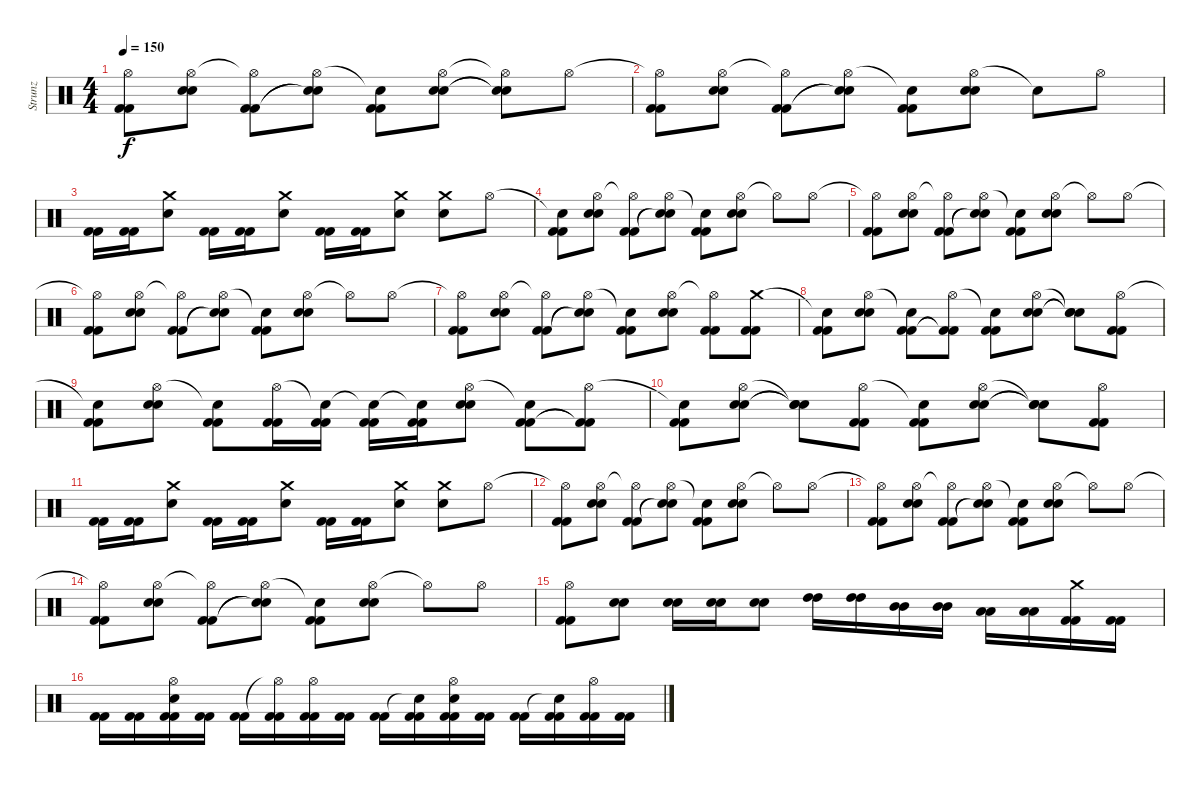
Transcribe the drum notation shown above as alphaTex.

\track ("Strunz" "Strunz") {instrument percussion}
\staff {score}
\articulation defaults
\ts (4 4)
\tempo 150
\clef neutral
\ks c
("Hi-Hat (open)"{t} "Kick (hit) 2" "Kick (hit) 2").8{dy f} ("Hi-Hat (open)" "Snare (hit) 2" "Snare (hit) 2").8 ("Hi-Hat (open)"{t} "Kick (hit) 2" "Kick (hit) 2").8 ("Hi-Hat (open)" "Snare (hit)"{t} "Snare (hit)"{t}).8 ("Snare (hit)"{t} "Kick (hit) 2" "Kick (hit) 2").8 ("Hi-Hat (open)" "Snare (hit) 2" "Snare (hit) 2").8 ("Hi-Hat (open)"{t} "Snare (hit)"{t} "Snare (hit)"{t}).8 "Hi-Hat (open)".8 |
("Hi-Hat (open)"{t} "Kick (hit) 2" "Kick (hit) 2").8 ("Hi-Hat (open)" "Snare (hit) 2" "Snare (hit) 2").8 ("Hi-Hat (open)"{t} "Kick (hit) 2" "Kick (hit) 2").8 ("Hi-Hat (open)" "Snare (hit)"{t} "Snare (hit)"{t}).8 ("Snare (hit)"{t} "Kick (hit) 2" "Kick (hit) 2").8 ("Hi-Hat (open)" "Snare (hit) 2" "Snare (hit) 2").8 "Snare (hit)"{t}.8 "Hi-Hat (open)".8 |
("Kick (hit) 2" "Kick (hit) 2").16 ("Kick (hit) 2" "Kick (hit) 2").16 ("Crash medium (hit)" "Snare (hit) 2").8 ("Kick (hit) 2" "Kick (hit) 2").16 ("Kick (hit) 2" "Kick (hit) 2").16 ("Crash medium (hit)" "Snare (hit) 2").8 ("Kick (hit) 2" "Kick (hit) 2").16 ("Kick (hit) 2" "Kick (hit) 2").16 ("Crash medium (hit)" "Snare (hit) 2").8 ("Crash medium (hit)" "Snare (hit) 2").8 "Hi-Hat (open)".8 |
("Snare (hit)"{t} "Kick (hit) 2" "Kick (hit) 2").8 ("Hi-Hat (open)" "Snare (hit) 2" "Snare (hit) 2").8 ("Hi-Hat (open)"{t} "Kick (hit) 2" "Kick (hit) 2").8 ("Hi-Hat (open)" "Snare (hit)"{t} "Snare (hit)"{t}).8 ("Snare (hit)"{t} "Kick (hit) 2" "Kick (hit) 2").8 ("Hi-Hat (open)" "Snare (hit) 2" "Snare (hit) 2").8 "Hi-Hat (open)"{t}.8 "Hi-Hat (open)".8 |
("Hi-Hat (open)"{t} "Kick (hit) 2" "Kick (hit) 2").8 ("Hi-Hat (open)" "Snare (hit) 2" "Snare (hit) 2").8 ("Hi-Hat (open)"{t} "Kick (hit) 2" "Kick (hit) 2").8 ("Hi-Hat (open)" "Snare (hit)"{t} "Snare (hit)"{t}).8 ("Snare (hit)"{t} "Kick (hit) 2" "Kick (hit) 2").8 ("Hi-Hat (open)" "Snare (hit) 2" "Snare (hit) 2").8 "Hi-Hat (open)"{t}.8 "Hi-Hat (open)".8 |
("Hi-Hat (open)"{t} "Kick (hit) 2" "Kick (hit) 2").8 ("Hi-Hat (open)" "Snare (hit) 2" "Snare (hit) 2").8 ("Hi-Hat (open)"{t} "Kick (hit) 2" "Kick (hit) 2").8 ("Hi-Hat (open)" "Snare (hit)"{t} "Snare (hit)"{t}).8 ("Snare (hit)"{t} "Kick (hit) 2" "Kick (hit) 2").8 ("Hi-Hat (open)" "Snare (hit) 2" "Snare (hit) 2").8 "Hi-Hat (open)"{t}.8 "Hi-Hat (open)".8 |
("Hi-Hat (open)"{t} "Kick (hit) 2" "Kick (hit) 2").8 ("Hi-Hat (open)" "Snare (hit) 2" "Snare (hit) 2").8 ("Hi-Hat (open)"{t} "Kick (hit) 2" "Kick (hit) 2").8 ("Hi-Hat (open)" "Snare (hit)"{t} "Snare (hit)"{t}).8 ("Snare (hit)"{t} "Kick (hit) 2" "Kick (hit) 2").8 ("Hi-Hat (open)" "Snare (hit) 2" "Snare (hit) 2").8 ("Hi-Hat (open)"{t} "Kick (hit) 2" "Kick (hit) 2").8 ("Crash medium (hit)" "Kick (hit) 2" "Kick (hit) 2").8 |
("Snare (hit)"{t} "Kick (hit) 2" "Kick (hit) 2").8 ("Hi-Hat (open)" "Snare (hit) 2" "Snare (hit) 2").8 ("Snare (hit)"{t} "Kick (hit) 2" "Kick (hit) 2").8 ("Hi-Hat (open)" "Kick (hit) 2"{t} "Kick (hit) 2"{t}).8 ("Snare (hit)"{t} "Kick (hit) 2" "Kick (hit) 2").8 ("Hi-Hat (open)" "Snare (hit) 2" "Snare (hit) 2").8 ("Snare (hit)"{t} "Snare (hit) 2"{t} "Snare (hit) 2"{t}).8 ("Hi-Hat (open)" "Kick (hit) 2" "Kick (hit) 2").8 |
("Snare (hit)"{t} "Kick (hit) 2" "Kick (hit) 2").8 ("Hi-Hat (open)" "Snare (hit) 2" "Snare (hit) 2").8 ("Snare (hit)"{t} "Kick (hit) 2" "Kick (hit) 2").8 ("Hi-Hat (open)" "Kick (hit) 2" "Kick (hit) 2").16 ("Snare (hit)"{t} "Kick (hit) 2" "Kick (hit) 2").16 ("Snare (hit)"{t} "Kick (hit) 2" "Kick (hit) 2").16 ("Snare (hit)"{t} "Kick (hit) 2" "Kick (hit) 2").16 ("Hi-Hat (open)" "Snare (hit) 2" "Snare (hit) 2").8 ("Snare (hit)"{t} "Kick (hit) 2" "Kick (hit) 2").8 ("Hi-Hat (open)" "Kick (hit) 2"{t} "Kick (hit) 2"{t}).8 |
("Snare (hit)"{t} "Kick (hit) 2" "Kick (hit) 2").8 ("Hi-Hat (open)" "Snare (hit) 2" "Snare (hit) 2").8 ("Snare (hit)"{t} "Snare (hit) 2"{t} "Snare (hit) 2"{t}).8 ("Hi-Hat (open)" "Kick (hit) 2" "Kick (hit) 2").8 ("Snare (hit)"{t} "Kick (hit) 2" "Kick (hit) 2").8 ("Hi-Hat (open)" "Snare (hit) 2" "Snare (hit) 2").8 ("Snare (hit)"{t} "Snare (hit)"{t} "Snare (hit)"{t}).8 ("Hi-Hat (open)" "Kick (hit) 2" "Kick (hit) 2").8 |
("Kick (hit) 2" "Kick (hit) 2").16 ("Kick (hit) 2" "Kick (hit) 2").16 ("Crash medium (hit)" "Snare (hit) 2").8 ("Kick (hit) 2" "Kick (hit) 2").16 ("Kick (hit) 2" "Kick (hit) 2").16 ("Crash medium (hit)" "Snare (hit) 2").8 ("Kick (hit) 2" "Kick (hit) 2").16 ("Kick (hit) 2" "Kick (hit) 2").16 ("Crash medium (hit)" "Snare (hit) 2").8 ("Crash medium (hit)" "Snare (hit) 2").8 "Hi-Hat (open)".8 |
("Hi-Hat (open)"{t} "Kick (hit) 2" "Kick (hit) 2").8 ("Hi-Hat (open)" "Snare (hit) 2" "Snare (hit) 2").8 ("Hi-Hat (open)"{t} "Kick (hit) 2" "Kick (hit) 2").8 ("Hi-Hat (open)" "Snare (hit)"{t} "Snare (hit)"{t}).8 ("Snare (hit)"{t} "Kick (hit) 2" "Kick (hit) 2").8 ("Hi-Hat (open)" "Snare (hit) 2" "Snare (hit) 2").8 "Hi-Hat (open)"{t}.8 "Hi-Hat (open)".8 |
("Hi-Hat (open)"{t} "Kick (hit) 2" "Kick (hit) 2").8 ("Hi-Hat (open)" "Snare (hit) 2" "Snare (hit) 2").8 ("Hi-Hat (open)"{t} "Kick (hit) 2" "Kick (hit) 2").8 ("Hi-Hat (open)" "Snare (hit)"{t} "Snare (hit)"{t}).8 ("Snare (hit)"{t} "Kick (hit) 2" "Kick (hit) 2").8 ("Hi-Hat (open)" "Snare (hit) 2" "Snare (hit) 2").8 "Hi-Hat (open)"{t}.8 "Hi-Hat (open)".8 |
("Hi-Hat (open)"{t} "Kick (hit) 2" "Kick (hit) 2").8 ("Hi-Hat (open)" "Snare (hit) 2" "Snare (hit) 2").8 ("Hi-Hat (open)"{t} "Kick (hit) 2" "Kick (hit) 2").8 ("Hi-Hat (open)" "Snare (hit)"{t} "Snare (hit)"{t}).8 ("Snare (hit)"{t} "Kick (hit) 2" "Kick (hit) 2").8 ("Hi-Hat (open)" "Snare (hit) 2" "Snare (hit) 2").8 "Hi-Hat (open)"{t}.8 "Hi-Hat (open)".8 |
("Hi-Hat (open)" "Kick (hit) 2" "Kick (hit) 2").8 ("Snare (hit) 2" "Snare (hit) 2").8 ("Snare (hit) 2" "Snare (hit) 2").16 ("Snare (hit) 2" "Snare (hit) 2").16 ("Snare (hit) 2" "Snare (hit) 2").8 ("High Tom (hit)" "High Tom (hit)").16 ("High Tom (hit)" "High Tom (hit)").16 ("Mid Tom (hit)" "Mid Tom (hit)").16 ("Mid Tom (hit)" "Mid Tom (hit)").16 ("Low Tom (hit)" "Low Tom (hit)").16 ("Low Tom (hit)" "Low Tom (hit)").16 ("Crash medium (hit)" "Kick (hit) 2" "Kick (hit) 2").16 ("Kick (hit) 2" "Kick (hit) 2").16 |
("Kick (hit) 2" "Kick (hit) 2").16 ("Kick (hit) 2" "Kick (hit) 2").16 ("Hi-Hat (open)" "Snare (hit) 2" "Kick (hit) 2" "Kick (hit) 2").16 ("Kick (hit) 2" "Kick (hit) 2").16 ("Kick (hit) 2" "Kick (hit) 2").16 ("Hi-Hat (open)"{t} "Kick (hit) 2" "Kick (hit) 2").16 ("Hi-Hat (open)" "Kick (hit) 2" "Kick (hit) 2").16 ("Kick (hit) 2" "Kick (hit) 2").16 ("Kick (hit) 2" "Kick (hit) 2").16 ("Snare (hit)"{t} "Kick (hit) 2" "Kick (hit) 2").16 ("Hi-Hat (open)" "Snare (hit) 2" "Kick (hit) 2" "Kick (hit) 2").16 ("Kick (hit) 2" "Kick (hit) 2").16 ("Kick (hit) 2" "Kick (hit) 2").16 ("Snare (hit)"{t} "Kick (hit) 2" "Kick (hit) 2").16 ("Hi-Hat (open)" "Kick (hit) 2" "Kick (hit) 2").16 ("Kick (hit) 2" "Kick (hit) 2").16
